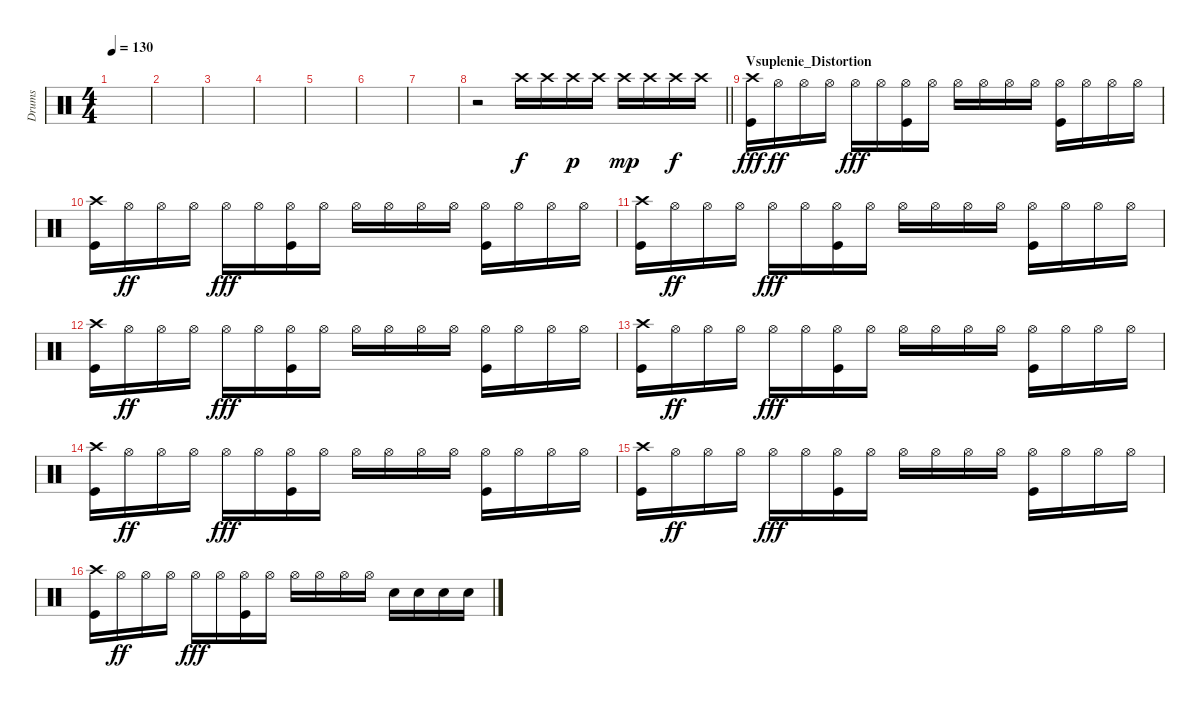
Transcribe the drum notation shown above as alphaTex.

\track ("Drums" "Drums") {instrument percussion}
\staff {score}
\articulation defaults
\ts (4 4)
\tempo 130
\clef neutral
\ks c
|
|
|
|
|
|
|
\barLineRight lightlight
r.2 "Crash high (hit)".16 "Crash high (hit)".16 "Crash high (hit)".16{dy p} "Crash high (hit)".16 "Crash high (hit)".16{dy mp} "Crash high (hit)".16 "Crash high (hit)".16{dy f} "Crash high (hit)".16 |
\section ("" "Vsuplenie_Distortion")
("Crash high (hit)" "Kick (hit)").16{dy fff} "Hi-Hat (open)".16{dy ff} "Hi-Hat (open)".16 "Hi-Hat (open)".16 "Hi-Hat (open)".16{dy fff} "Hi-Hat (open)".16 ("Hi-Hat (open)" "Kick (hit)").16 "Hi-Hat (open)".16 "Hi-Hat (open)".16 "Hi-Hat (open)".16 "Hi-Hat (open)".16 "Hi-Hat (open)".16 ("Hi-Hat (open)" "Kick (hit)").16 "Hi-Hat (open)".16 "Hi-Hat (open)".16 "Hi-Hat (open)".16 |
("Crash high (hit)" "Kick (hit)").16 "Hi-Hat (open)".16{dy ff} "Hi-Hat (open)".16 "Hi-Hat (open)".16 "Hi-Hat (open)".16{dy fff} "Hi-Hat (open)".16 ("Hi-Hat (open)" "Kick (hit)").16 "Hi-Hat (open)".16 "Hi-Hat (open)".16 "Hi-Hat (open)".16 "Hi-Hat (open)".16 "Hi-Hat (open)".16 ("Hi-Hat (open)" "Kick (hit)").16 "Hi-Hat (open)".16 "Hi-Hat (open)".16 "Hi-Hat (open)".16 |
("Crash high (hit)" "Kick (hit)").16 "Hi-Hat (open)".16{dy ff} "Hi-Hat (open)".16 "Hi-Hat (open)".16 "Hi-Hat (open)".16{dy fff} "Hi-Hat (open)".16 ("Hi-Hat (open)" "Kick (hit)").16 "Hi-Hat (open)".16 "Hi-Hat (open)".16 "Hi-Hat (open)".16 "Hi-Hat (open)".16 "Hi-Hat (open)".16 ("Hi-Hat (open)" "Kick (hit)").16 "Hi-Hat (open)".16 "Hi-Hat (open)".16 "Hi-Hat (open)".16 |
("Crash high (hit)" "Kick (hit)").16 "Hi-Hat (open)".16{dy ff} "Hi-Hat (open)".16 "Hi-Hat (open)".16 "Hi-Hat (open)".16{dy fff} "Hi-Hat (open)".16 ("Hi-Hat (open)" "Kick (hit)").16 "Hi-Hat (open)".16 "Hi-Hat (open)".16 "Hi-Hat (open)".16 "Hi-Hat (open)".16 "Hi-Hat (open)".16 ("Hi-Hat (open)" "Kick (hit)").16 "Hi-Hat (open)".16 "Hi-Hat (open)".16 "Hi-Hat (open)".16 |
("Crash high (hit)" "Kick (hit)").16 "Hi-Hat (open)".16{dy ff} "Hi-Hat (open)".16 "Hi-Hat (open)".16 "Hi-Hat (open)".16{dy fff} "Hi-Hat (open)".16 ("Hi-Hat (open)" "Kick (hit)").16 "Hi-Hat (open)".16 "Hi-Hat (open)".16 "Hi-Hat (open)".16 "Hi-Hat (open)".16 "Hi-Hat (open)".16 ("Hi-Hat (open)" "Kick (hit)").16 "Hi-Hat (open)".16 "Hi-Hat (open)".16 "Hi-Hat (open)".16 |
("Crash high (hit)" "Kick (hit)").16 "Hi-Hat (open)".16{dy ff} "Hi-Hat (open)".16 "Hi-Hat (open)".16 "Hi-Hat (open)".16{dy fff} "Hi-Hat (open)".16 ("Hi-Hat (open)" "Kick (hit)").16 "Hi-Hat (open)".16 "Hi-Hat (open)".16 "Hi-Hat (open)".16 "Hi-Hat (open)".16 "Hi-Hat (open)".16 ("Hi-Hat (open)" "Kick (hit)").16 "Hi-Hat (open)".16 "Hi-Hat (open)".16 "Hi-Hat (open)".16 |
("Crash high (hit)" "Kick (hit)").16 "Hi-Hat (open)".16{dy ff} "Hi-Hat (open)".16 "Hi-Hat (open)".16 "Hi-Hat (open)".16{dy fff} "Hi-Hat (open)".16 ("Hi-Hat (open)" "Kick (hit)").16 "Hi-Hat (open)".16 "Hi-Hat (open)".16 "Hi-Hat (open)".16 "Hi-Hat (open)".16 "Hi-Hat (open)".16 ("Hi-Hat (open)" "Kick (hit)").16 "Hi-Hat (open)".16 "Hi-Hat (open)".16 "Hi-Hat (open)".16 |
("Crash high (hit)" "Kick (hit)").16 "Hi-Hat (open)".16{dy ff} "Hi-Hat (open)".16 "Hi-Hat (open)".16 "Hi-Hat (open)".16{dy fff} "Hi-Hat (open)".16 ("Hi-Hat (open)" "Kick (hit)").16 "Hi-Hat (open)".16 "Hi-Hat (open)".16 "Hi-Hat (open)".16 "Hi-Hat (open)".16 "Hi-Hat (open)".16 "Snare (hit) 2".16 "Snare (hit) 2".16 "Snare (hit) 2".16 "Snare (hit) 2".16
